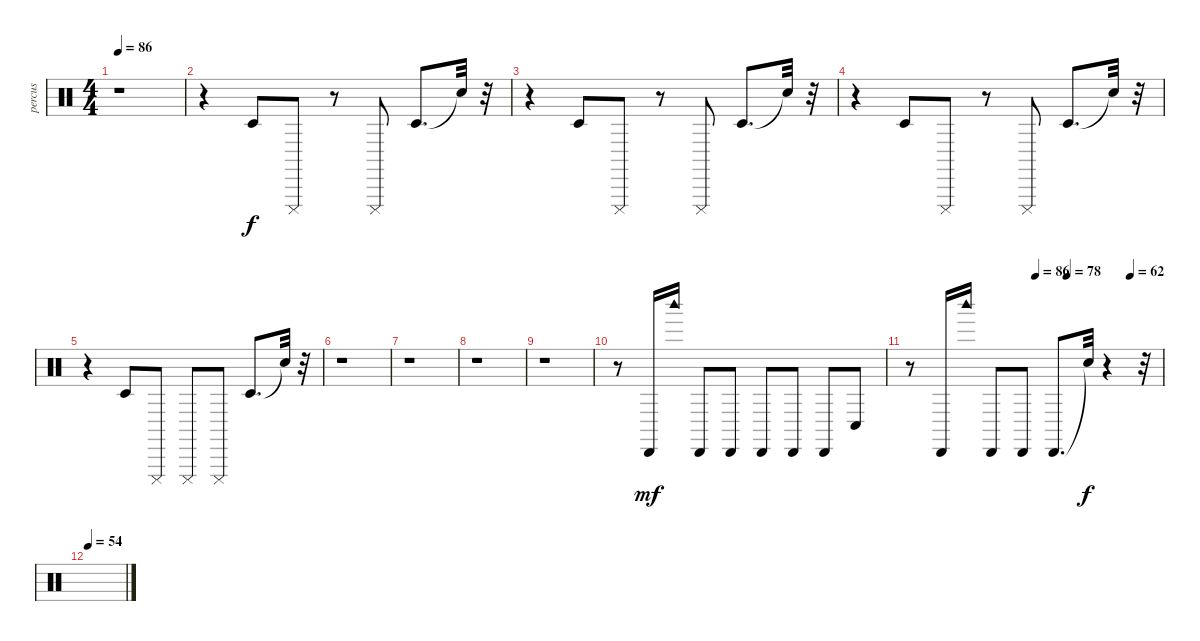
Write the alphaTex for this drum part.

\track ("percus" "percus") {instrument percussion}
\staff {score}
\articulation defaults
\ts (4 4)
\tempo 86
\clef neutral
\ks c
r.1{dy f} |
r.4 "Timbale low (hit)".8 "Cuica (mute)".8 r.8 "Cuica (mute)".8 "Timbale low (hit)".8{d} "Snare (hit)"{t}.32 r.32 |
r.4 "Timbale low (hit)".8 "Cuica (mute)".8 r.8 "Cuica (mute)".8 "Timbale low (hit)".8{d} "Snare (hit)"{t}.32 r.32 |
r.4 "Timbale low (hit)".8 "Cuica (mute)".8 r.8 "Cuica (mute)".8 "Timbale low (hit)".8{d} "Snare (hit)"{t}.32 r.32 |
r.4 "Timbale low (hit)".8 "Cuica (mute)".8 "Cuica (mute)".8 "Cuica (mute)".8 "Timbale low (hit)".8{d} "Snare (hit)"{t}.32 r.32 |
r.1 |
r.1 |
r.1 |
r.1 |
r.8 "Cabasa (hit)".16{dy mf} "Woodblock high (hit)".16 "Cabasa (hit)".8 "Cabasa (hit)".8 "Cabasa (hit)".8 "Cabasa (hit)".8 "Cabasa (hit)".8 "Conga low (hit)".8 |
\tempo (86 0.5)
\tempo (78 0.625)
\tempo (62 0.875)
r.8 "Cabasa (hit)".16 "Woodblock high (hit)".16 "Cabasa (hit)".8 "Cabasa (hit)".8 "Cabasa (hit)".8{d} "Snare (hit)"{t}.32{dy f} r.4 r.32 |
\tempo 54
